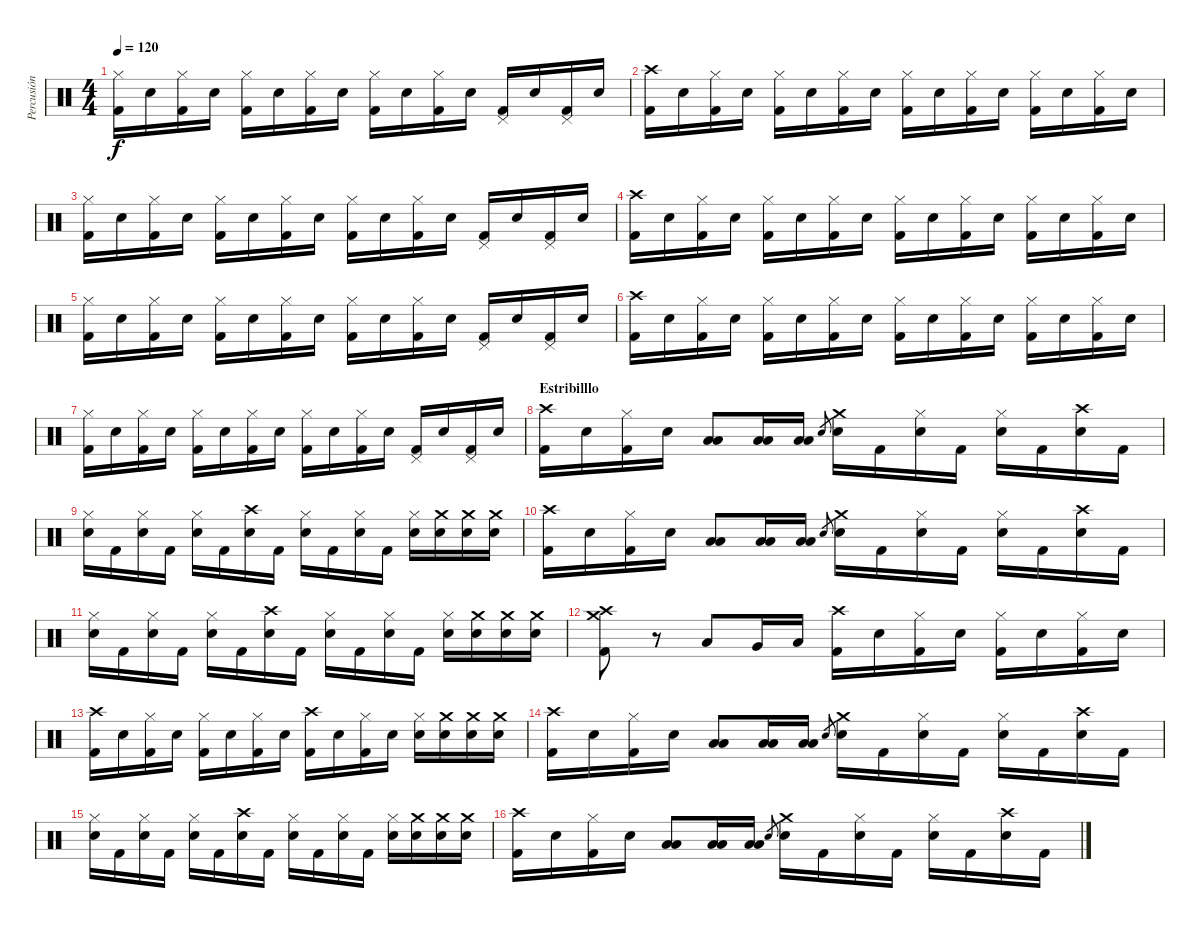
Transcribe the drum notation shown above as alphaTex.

\track ("Percusión" "Percusión") {instrument percussion}
\staff {score}
\articulation defaults
\ts (4 4)
\tempo 120
\clef neutral
\ks c
("Hi-Hat (closed)" "Kick (hit) 2").16{dy f} "Snare (hit) 2".16 ("Hi-Hat (closed)" "Kick (hit) 2").16 "Snare (hit) 2".16 ("Hi-Hat (closed)" "Kick (hit) 2").16 "Snare (hit) 2".16 ("Hi-Hat (closed)" "Kick (hit) 2").16 "Snare (hit) 2".16 ("Hi-Hat (closed)" "Kick (hit) 2").16 "Snare (hit) 2".16 ("Hi-Hat (closed)" "Kick (hit) 2").16 "Snare (hit) 2".16 ("Pedal Hi-Hat (hit)" "Kick (hit) 2").16 "Snare (hit) 2".16 ("Pedal Hi-Hat (hit)" "Kick (hit) 2").16 "Snare (hit) 2".16 |
("Crash high (hit)" "Kick (hit) 2").16 "Snare (hit) 2".16 ("Hi-Hat (closed)" "Kick (hit) 2").16 "Snare (hit) 2".16 ("Hi-Hat (closed)" "Kick (hit) 2").16 "Snare (hit) 2".16 ("Hi-Hat (closed)" "Kick (hit) 2").16 "Snare (hit) 2".16 ("Hi-Hat (closed)" "Kick (hit) 2").16 "Snare (hit) 2".16 ("Hi-Hat (closed)" "Kick (hit) 2").16 "Snare (hit) 2".16 ("Hi-Hat (closed)" "Kick (hit) 2").16 "Snare (hit) 2".16 ("Hi-Hat (closed)" "Kick (hit) 2").16 "Snare (hit) 2".16 |
("Hi-Hat (closed)" "Kick (hit) 2").16 "Snare (hit) 2".16 ("Hi-Hat (closed)" "Kick (hit) 2").16 "Snare (hit) 2".16 ("Hi-Hat (closed)" "Kick (hit) 2").16 "Snare (hit) 2".16 ("Hi-Hat (closed)" "Kick (hit) 2").16 "Snare (hit) 2".16 ("Hi-Hat (closed)" "Kick (hit) 2").16 "Snare (hit) 2".16 ("Hi-Hat (closed)" "Kick (hit) 2").16 "Snare (hit) 2".16 ("Pedal Hi-Hat (hit)" "Kick (hit) 2").16 "Snare (hit) 2".16 ("Pedal Hi-Hat (hit)" "Kick (hit) 2").16 "Snare (hit) 2".16 |
("Crash high (hit)" "Kick (hit) 2").16 "Snare (hit) 2".16 ("Hi-Hat (closed)" "Kick (hit) 2").16 "Snare (hit) 2".16 ("Hi-Hat (closed)" "Kick (hit) 2").16 "Snare (hit) 2".16 ("Hi-Hat (closed)" "Kick (hit) 2").16 "Snare (hit) 2".16 ("Hi-Hat (closed)" "Kick (hit) 2").16 "Snare (hit) 2".16 ("Hi-Hat (closed)" "Kick (hit) 2").16 "Snare (hit) 2".16 ("Hi-Hat (closed)" "Kick (hit) 2").16 "Snare (hit) 2".16 ("Hi-Hat (closed)" "Kick (hit) 2").16 "Snare (hit) 2".16 |
("Hi-Hat (closed)" "Kick (hit) 2").16 "Snare (hit) 2".16 ("Hi-Hat (closed)" "Kick (hit) 2").16 "Snare (hit) 2".16 ("Hi-Hat (closed)" "Kick (hit) 2").16 "Snare (hit) 2".16 ("Hi-Hat (closed)" "Kick (hit) 2").16 "Snare (hit) 2".16 ("Hi-Hat (closed)" "Kick (hit) 2").16 "Snare (hit) 2".16 ("Hi-Hat (closed)" "Kick (hit) 2").16 "Snare (hit) 2".16 ("Pedal Hi-Hat (hit)" "Kick (hit) 2").16 "Snare (hit) 2".16 ("Pedal Hi-Hat (hit)" "Kick (hit) 2").16 "Snare (hit) 2".16 |
("Crash high (hit)" "Kick (hit) 2").16 "Snare (hit) 2".16 ("Hi-Hat (closed)" "Kick (hit) 2").16 "Snare (hit) 2".16 ("Hi-Hat (closed)" "Kick (hit) 2").16 "Snare (hit) 2".16 ("Hi-Hat (closed)" "Kick (hit) 2").16 "Snare (hit) 2".16 ("Hi-Hat (closed)" "Kick (hit) 2").16 "Snare (hit) 2".16 ("Hi-Hat (closed)" "Kick (hit) 2").16 "Snare (hit) 2".16 ("Hi-Hat (closed)" "Kick (hit) 2").16 "Snare (hit) 2".16 ("Hi-Hat (closed)" "Kick (hit) 2").16 "Snare (hit) 2".16 |
("Hi-Hat (closed)" "Kick (hit) 2").16 "Snare (hit) 2".16 ("Hi-Hat (closed)" "Kick (hit) 2").16 "Snare (hit) 2".16 ("Hi-Hat (closed)" "Kick (hit) 2").16 "Snare (hit) 2".16 ("Hi-Hat (closed)" "Kick (hit) 2").16 "Snare (hit) 2".16 ("Hi-Hat (closed)" "Kick (hit) 2").16 "Snare (hit) 2".16 ("Hi-Hat (closed)" "Kick (hit) 2").16 "Snare (hit) 2".16 ("Pedal Hi-Hat (hit)" "Kick (hit) 2").16 "Snare (hit) 2".16 ("Pedal Hi-Hat (hit)" "Kick (hit) 2").16 "Snare (hit) 2".16 |
\section ("" "Estribilllo")
("Crash high (hit)" "Kick (hit) 2").16 "Snare (hit) 2".16 ("Hi-Hat (closed)" "Kick (hit) 2").16 "Snare (hit) 2".16 ("Low Tom (hit)" "Low Floor Tom (hit)").8 ("Low Tom (hit)" "Low Floor Tom (hit)").16 ("Low Floor Tom (hit)" "Low Tom (hit)").16 "Snare (hit) 2".8{gr} ("Crash medium (hit)" "Snare (hit) 2").16 "Kick (hit) 2".16 ("Hi-Hat (closed)" "Snare (hit) 2").16 "Kick (hit) 2".16 ("Hi-Hat (closed)" "Snare (hit) 2").16 "Kick (hit) 2".16 ("Crash high (hit)" "Snare (hit) 2").16 "Kick (hit) 2".16 |
("Hi-Hat (closed)" "Snare (hit) 2").16 "Kick (hit) 2".16 ("Hi-Hat (closed)" "Snare (hit) 2").16 "Kick (hit) 2".16 ("Hi-Hat (closed)" "Snare (hit) 2").16 "Kick (hit) 2".16 ("Crash high (hit)" "Snare (hit) 2").16 "Kick (hit) 2".16 ("Hi-Hat (closed)" "Snare (hit) 2").16 "Kick (hit) 2".16 ("Hi-Hat (closed)" "Snare (hit) 2").16 "Kick (hit) 2".16 ("Hi-Hat (closed)" "Snare (hit) 2").16 ("Crash medium (hit)" "Snare (hit) 2").16 ("Crash medium (hit)" "Snare (hit) 2").16 ("Crash medium (hit)" "Snare (hit) 2").16 |
("Crash high (hit)" "Kick (hit) 2").16 "Snare (hit) 2".16 ("Hi-Hat (closed)" "Kick (hit) 2").16 "Snare (hit) 2".16 ("Low Tom (hit)" "Low Floor Tom (hit)").8 ("Low Tom (hit)" "Low Floor Tom (hit)").16 ("Low Floor Tom (hit)" "Low Tom (hit)").16 "Snare (hit) 2".8{gr} ("Crash medium (hit)" "Snare (hit) 2").16 "Kick (hit) 2".16 ("Hi-Hat (closed)" "Snare (hit) 2").16 "Kick (hit) 2".16 ("Hi-Hat (closed)" "Snare (hit) 2").16 "Kick (hit) 2".16 ("Crash high (hit)" "Snare (hit) 2").16 "Kick (hit) 2".16 |
("Hi-Hat (closed)" "Snare (hit) 2").16 "Kick (hit) 2".16 ("Hi-Hat (closed)" "Snare (hit) 2").16 "Kick (hit) 2".16 ("Hi-Hat (closed)" "Snare (hit) 2").16 "Kick (hit) 2".16 ("Crash high (hit)" "Snare (hit) 2").16 "Kick (hit) 2".16 ("Hi-Hat (closed)" "Snare (hit) 2").16 "Kick (hit) 2".16 ("Hi-Hat (closed)" "Snare (hit) 2").16 "Kick (hit) 2".16 ("Hi-Hat (closed)" "Snare (hit) 2").16 ("Crash medium (hit)" "Snare (hit) 2").16 ("Crash medium (hit)" "Snare (hit) 2").16 ("Crash medium (hit)" "Snare (hit) 2").16 |
("Crash medium (hit)" "Crash high (hit)" "Kick (hit) 2").8 r.8 "Low Tom (hit)".8 "Very Low Tom (hit)".16 "Low Floor Tom (hit)".16 ("Crash high (hit)" "Kick (hit) 2").16 "Snare (hit) 2".16 ("Hi-Hat (closed)" "Kick (hit) 2").16 "Snare (hit) 2".16 ("Hi-Hat (closed)" "Kick (hit) 2").16 "Snare (hit) 2".16 ("Hi-Hat (closed)" "Kick (hit) 2").16 "Snare (hit) 2".16 |
("Crash high (hit)" "Kick (hit) 2").16 "Snare (hit) 2".16 ("Hi-Hat (closed)" "Kick (hit) 2").16 "Snare (hit) 2".16 ("Hi-Hat (closed)" "Kick (hit) 2").16 "Snare (hit) 2".16 ("Hi-Hat (closed)" "Kick (hit) 2").16 "Snare (hit) 2".16 ("Crash high (hit)" "Kick (hit) 2").16 "Snare (hit) 2".16 ("Hi-Hat (closed)" "Kick (hit) 2").16 "Snare (hit) 2".16 ("Hi-Hat (closed)" "Snare (hit) 2").16 ("Crash medium (hit)" "Snare (hit) 2").16 ("Crash medium (hit)" "Snare (hit) 2").16 ("Crash medium (hit)" "Snare (hit) 2").16 |
("Crash high (hit)" "Kick (hit) 2").16 "Snare (hit) 2".16 ("Hi-Hat (closed)" "Kick (hit) 2").16 "Snare (hit) 2".16 ("Low Tom (hit)" "Low Floor Tom (hit)").8 ("Low Tom (hit)" "Low Floor Tom (hit)").16 ("Low Floor Tom (hit)" "Low Tom (hit)").16 "Snare (hit) 2".8{gr} ("Crash medium (hit)" "Snare (hit) 2").16 "Kick (hit) 2".16 ("Hi-Hat (closed)" "Snare (hit) 2").16 "Kick (hit) 2".16 ("Hi-Hat (closed)" "Snare (hit) 2").16 "Kick (hit) 2".16 ("Crash high (hit)" "Snare (hit) 2").16 "Kick (hit) 2".16 |
("Hi-Hat (closed)" "Snare (hit) 2").16 "Kick (hit) 2".16 ("Hi-Hat (closed)" "Snare (hit) 2").16 "Kick (hit) 2".16 ("Hi-Hat (closed)" "Snare (hit) 2").16 "Kick (hit) 2".16 ("Crash high (hit)" "Snare (hit) 2").16 "Kick (hit) 2".16 ("Hi-Hat (closed)" "Snare (hit) 2").16 "Kick (hit) 2".16 ("Hi-Hat (closed)" "Snare (hit) 2").16 "Kick (hit) 2".16 ("Hi-Hat (closed)" "Snare (hit) 2").16 ("Crash medium (hit)" "Snare (hit) 2").16 ("Crash medium (hit)" "Snare (hit) 2").16 ("Crash medium (hit)" "Snare (hit) 2").16 |
("Crash high (hit)" "Kick (hit) 2").16 "Snare (hit) 2".16 ("Hi-Hat (closed)" "Kick (hit) 2").16 "Snare (hit) 2".16 ("Low Tom (hit)" "Low Floor Tom (hit)").8 ("Low Tom (hit)" "Low Floor Tom (hit)").16 ("Low Floor Tom (hit)" "Low Tom (hit)").16 "Snare (hit) 2".8{gr} ("Crash medium (hit)" "Snare (hit) 2").16 "Kick (hit) 2".16 ("Hi-Hat (closed)" "Snare (hit) 2").16 "Kick (hit) 2".16 ("Hi-Hat (closed)" "Snare (hit) 2").16 "Kick (hit) 2".16 ("Crash high (hit)" "Snare (hit) 2").16 "Kick (hit) 2".16
